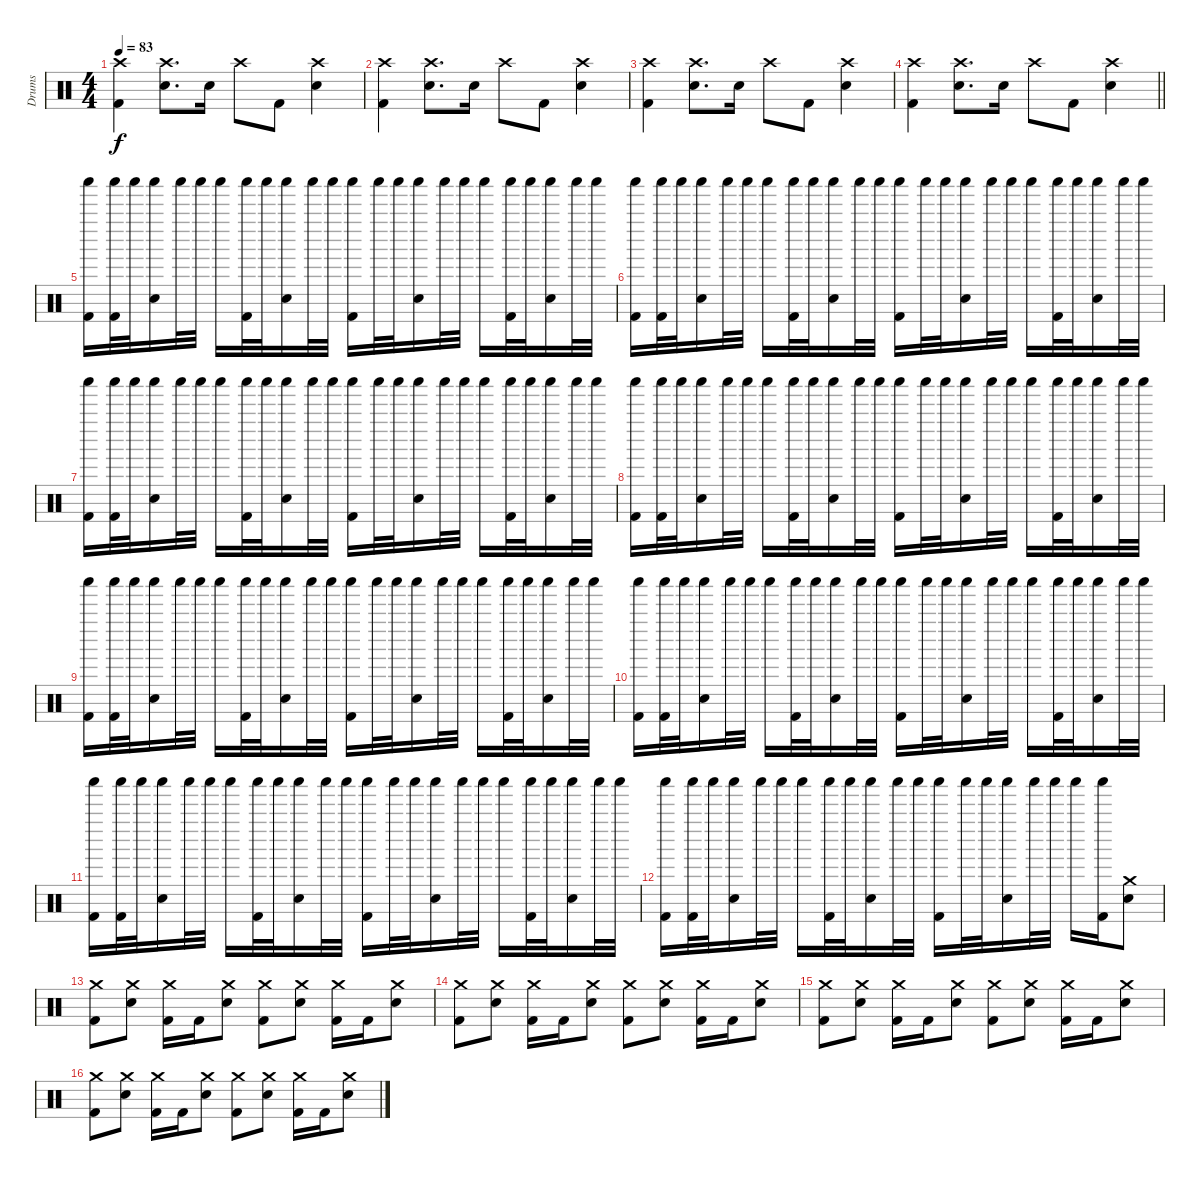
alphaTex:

\track ("Drums" "Drums") {instrument percussion}
\staff {score}
\articulation defaults
\ts (4 4)
\tempo 83
\clef neutral
\ks c
("Crash high (hit)" "Kick (hit) 2").4{dy f} ("Crash high (hit)" "Snare (hit) 2").8{d} "Snare (hit) 2".16 "Crash high (hit)".8 "Kick (hit) 2".8 ("Crash high (hit)" "Snare (hit) 2").4 |
("Crash high (hit)" "Kick (hit) 2").4 ("Crash high (hit)" "Snare (hit) 2").8{d} "Snare (hit) 2".16 "Crash high (hit)".8 "Kick (hit) 2".8 ("Crash high (hit)" "Snare (hit) 2").4 |
("Crash high (hit)" "Kick (hit) 2").4 ("Crash high (hit)" "Snare (hit) 2").8{d} "Snare (hit) 2".16 "Crash high (hit)".8 "Kick (hit) 2".8 ("Crash high (hit)" "Snare (hit) 2").4 |
\barLineRight lightlight
("Crash high (hit)" "Kick (hit) 2").4 ("Crash high (hit)" "Snare (hit) 2").8{d} "Snare (hit) 2".16 "Crash high (hit)".8 "Kick (hit) 2".8 ("Crash high (hit)" "Snare (hit) 2").4 |
("Shaker (hit)" "Kick (hit) 2").16 ("Shaker (hit)" "Kick (hit) 2").32 "Shaker (hit)".32 ("Shaker (hit)" "Snare (hit) 2").16 "Shaker (hit)".32 "Shaker (hit)".32 "Shaker (hit)".16 ("Shaker (hit)" "Kick (hit) 2").32 "Shaker (hit)".32 ("Shaker (hit)" "Snare (hit) 2").16 "Shaker (hit)".32 "Shaker (hit)".32 ("Shaker (hit)" "Kick (hit) 2").16 "Shaker (hit)".32 "Shaker (hit)".32 ("Shaker (hit)" "Snare (hit) 2").16 "Shaker (hit)".32 "Shaker (hit)".32 "Shaker (hit)".16 ("Shaker (hit)" "Kick (hit) 2").32 "Shaker (hit)".32 ("Shaker (hit)" "Snare (hit) 2").16 "Shaker (hit)".32 "Shaker (hit)".32 |
("Shaker (hit)" "Kick (hit) 2").16 ("Shaker (hit)" "Kick (hit) 2").32 "Shaker (hit)".32 ("Shaker (hit)" "Snare (hit) 2").16 "Shaker (hit)".32 "Shaker (hit)".32 "Shaker (hit)".16 ("Shaker (hit)" "Kick (hit) 2").32 "Shaker (hit)".32 ("Shaker (hit)" "Snare (hit) 2").16 "Shaker (hit)".32 "Shaker (hit)".32 ("Shaker (hit)" "Kick (hit) 2").16 "Shaker (hit)".32 "Shaker (hit)".32 ("Shaker (hit)" "Snare (hit) 2").16 "Shaker (hit)".32 "Shaker (hit)".32 "Shaker (hit)".16 ("Shaker (hit)" "Kick (hit) 2").32 "Shaker (hit)".32 ("Shaker (hit)" "Snare (hit) 2").16 "Shaker (hit)".32 "Shaker (hit)".32 |
("Shaker (hit)" "Kick (hit) 2").16 ("Shaker (hit)" "Kick (hit) 2").32 "Shaker (hit)".32 ("Shaker (hit)" "Snare (hit) 2").16 "Shaker (hit)".32 "Shaker (hit)".32 "Shaker (hit)".16 ("Shaker (hit)" "Kick (hit) 2").32 "Shaker (hit)".32 ("Shaker (hit)" "Snare (hit) 2").16 "Shaker (hit)".32 "Shaker (hit)".32 ("Shaker (hit)" "Kick (hit) 2").16 "Shaker (hit)".32 "Shaker (hit)".32 ("Shaker (hit)" "Snare (hit) 2").16 "Shaker (hit)".32 "Shaker (hit)".32 "Shaker (hit)".16 ("Shaker (hit)" "Kick (hit) 2").32 "Shaker (hit)".32 ("Shaker (hit)" "Snare (hit) 2").16 "Shaker (hit)".32 "Shaker (hit)".32 |
("Shaker (hit)" "Kick (hit) 2").16 ("Shaker (hit)" "Kick (hit) 2").32 "Shaker (hit)".32 ("Shaker (hit)" "Snare (hit) 2").16 "Shaker (hit)".32 "Shaker (hit)".32 "Shaker (hit)".16 ("Shaker (hit)" "Kick (hit) 2").32 "Shaker (hit)".32 ("Shaker (hit)" "Snare (hit) 2").16 "Shaker (hit)".32 "Shaker (hit)".32 ("Shaker (hit)" "Kick (hit) 2").16 "Shaker (hit)".32 "Shaker (hit)".32 ("Shaker (hit)" "Snare (hit) 2").16 "Shaker (hit)".32 "Shaker (hit)".32 "Shaker (hit)".16 ("Shaker (hit)" "Kick (hit) 2").32 "Shaker (hit)".32 ("Shaker (hit)" "Snare (hit) 2").16 "Shaker (hit)".32 "Shaker (hit)".32 |
("Shaker (hit)" "Kick (hit) 2").16 ("Shaker (hit)" "Kick (hit) 2").32 "Shaker (hit)".32 ("Shaker (hit)" "Snare (hit) 2").16 "Shaker (hit)".32 "Shaker (hit)".32 "Shaker (hit)".16 ("Shaker (hit)" "Kick (hit) 2").32 "Shaker (hit)".32 ("Shaker (hit)" "Snare (hit) 2").16 "Shaker (hit)".32 "Shaker (hit)".32 ("Shaker (hit)" "Kick (hit) 2").16 "Shaker (hit)".32 "Shaker (hit)".32 ("Shaker (hit)" "Snare (hit) 2").16 "Shaker (hit)".32 "Shaker (hit)".32 "Shaker (hit)".16 ("Shaker (hit)" "Kick (hit) 2").32 "Shaker (hit)".32 ("Shaker (hit)" "Snare (hit) 2").16 "Shaker (hit)".32 "Shaker (hit)".32 |
("Shaker (hit)" "Kick (hit) 2").16 ("Shaker (hit)" "Kick (hit) 2").32 "Shaker (hit)".32 ("Shaker (hit)" "Snare (hit) 2").16 "Shaker (hit)".32 "Shaker (hit)".32 "Shaker (hit)".16 ("Shaker (hit)" "Kick (hit) 2").32 "Shaker (hit)".32 ("Shaker (hit)" "Snare (hit) 2").16 "Shaker (hit)".32 "Shaker (hit)".32 ("Shaker (hit)" "Kick (hit) 2").16 "Shaker (hit)".32 "Shaker (hit)".32 ("Shaker (hit)" "Snare (hit) 2").16 "Shaker (hit)".32 "Shaker (hit)".32 "Shaker (hit)".16 ("Shaker (hit)" "Kick (hit) 2").32 "Shaker (hit)".32 ("Shaker (hit)" "Snare (hit) 2").16 "Shaker (hit)".32 "Shaker (hit)".32 |
("Shaker (hit)" "Kick (hit) 2").16 ("Shaker (hit)" "Kick (hit) 2").32 "Shaker (hit)".32 ("Shaker (hit)" "Snare (hit) 2").16 "Shaker (hit)".32 "Shaker (hit)".32 "Shaker (hit)".16 ("Shaker (hit)" "Kick (hit) 2").32 "Shaker (hit)".32 ("Shaker (hit)" "Snare (hit) 2").16 "Shaker (hit)".32 "Shaker (hit)".32 ("Shaker (hit)" "Kick (hit) 2").16 "Shaker (hit)".32 "Shaker (hit)".32 ("Shaker (hit)" "Snare (hit) 2").16 "Shaker (hit)".32 "Shaker (hit)".32 "Shaker (hit)".16 ("Shaker (hit)" "Kick (hit) 2").32 "Shaker (hit)".32 ("Shaker (hit)" "Snare (hit) 2").16 "Shaker (hit)".32 "Shaker (hit)".32 |
("Shaker (hit)" "Kick (hit) 2").16 ("Shaker (hit)" "Kick (hit) 2").32 "Shaker (hit)".32 ("Shaker (hit)" "Snare (hit) 2").16 "Shaker (hit)".32 "Shaker (hit)".32 "Shaker (hit)".16 ("Shaker (hit)" "Kick (hit) 2").32 "Shaker (hit)".32 ("Shaker (hit)" "Snare (hit) 2").16 "Shaker (hit)".32 "Shaker (hit)".32 ("Shaker (hit)" "Kick (hit) 2").16 "Shaker (hit)".32 "Shaker (hit)".32 ("Shaker (hit)" "Snare (hit) 2").16 "Shaker (hit)".32 "Shaker (hit)".32 "Shaker (hit)".16 ("Shaker (hit)" "Kick (hit) 2").16 ("Crash medium (hit)" "Snare (hit) 2").8 |
("Crash medium (hit)" "Kick (hit) 2").8 ("Crash medium (hit)" "Snare (hit) 2").8 ("Crash medium (hit)" "Kick (hit) 2").16 "Kick (hit) 2".16 ("Crash medium (hit)" "Snare (hit) 2").8 ("Crash medium (hit)" "Kick (hit) 2").8 ("Crash medium (hit)" "Snare (hit) 2").8 ("Crash medium (hit)" "Kick (hit) 2").16 "Kick (hit) 2".16 ("Crash medium (hit)" "Snare (hit) 2").8 |
("Crash medium (hit)" "Kick (hit) 2").8 ("Crash medium (hit)" "Snare (hit) 2").8 ("Crash medium (hit)" "Kick (hit) 2").16 "Kick (hit) 2".16 ("Crash medium (hit)" "Snare (hit) 2").8 ("Crash medium (hit)" "Kick (hit) 2").8 ("Crash medium (hit)" "Snare (hit) 2").8 ("Crash medium (hit)" "Kick (hit) 2").16 "Kick (hit) 2".16 ("Crash medium (hit)" "Snare (hit) 2").8 |
("Crash medium (hit)" "Kick (hit) 2").8 ("Crash medium (hit)" "Snare (hit) 2").8 ("Crash medium (hit)" "Kick (hit) 2").16 "Kick (hit) 2".16 ("Crash medium (hit)" "Snare (hit) 2").8 ("Crash medium (hit)" "Kick (hit) 2").8 ("Crash medium (hit)" "Snare (hit) 2").8 ("Crash medium (hit)" "Kick (hit) 2").16 "Kick (hit) 2".16 ("Crash medium (hit)" "Snare (hit) 2").8 |
("Crash medium (hit)" "Kick (hit) 2").8 ("Crash medium (hit)" "Snare (hit) 2").8 ("Crash medium (hit)" "Kick (hit) 2").16 "Kick (hit) 2".16 ("Crash medium (hit)" "Snare (hit) 2").8 ("Crash medium (hit)" "Kick (hit) 2").8 ("Crash medium (hit)" "Snare (hit) 2").8 ("Crash medium (hit)" "Kick (hit) 2").16 "Kick (hit) 2".16 ("Crash medium (hit)" "Snare (hit) 2").8
